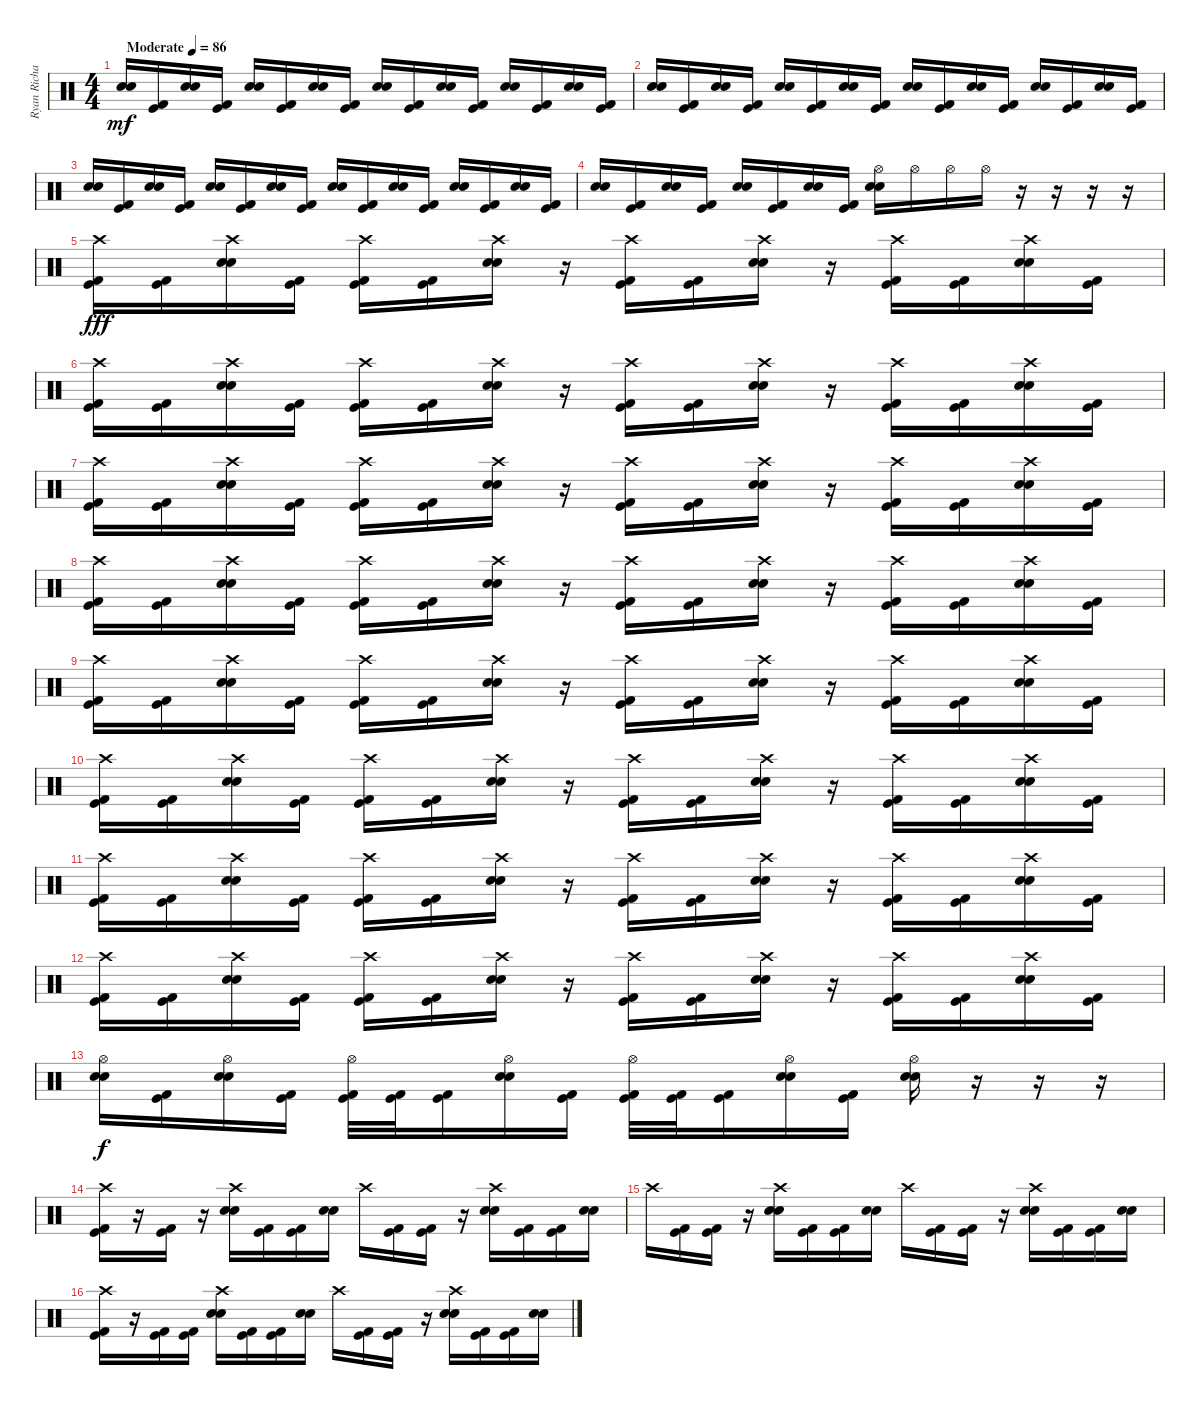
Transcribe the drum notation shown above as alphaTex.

\track ("Ryan Richards" "Ryan Richa") {instrument percussion}
\staff {score}
\articulation defaults
\ts (4 4)
\tempo (86 "Moderate")
\clef neutral
\ks c
("Snare (hit) 2" "Electric Snare (hit)").16{dy mf} ("Kick (hit)" "Kick (hit) 2").16 ("Snare (hit) 2" "Electric Snare (hit)").16 ("Kick (hit)" "Kick (hit) 2").16 ("Snare (hit) 2" "Electric Snare (hit)").16 ("Kick (hit)" "Kick (hit) 2").16 ("Snare (hit) 2" "Electric Snare (hit)").16 ("Kick (hit)" "Kick (hit) 2").16 ("Snare (hit) 2" "Electric Snare (hit)").16 ("Kick (hit)" "Kick (hit) 2").16 ("Snare (hit) 2" "Electric Snare (hit)").16 ("Kick (hit)" "Kick (hit) 2").16 ("Snare (hit) 2" "Electric Snare (hit)").16 ("Kick (hit)" "Kick (hit) 2").16 ("Snare (hit) 2" "Electric Snare (hit)").16 ("Kick (hit)" "Kick (hit) 2").16 |
("Snare (hit) 2" "Electric Snare (hit)").16 ("Kick (hit)" "Kick (hit) 2").16 ("Snare (hit) 2" "Electric Snare (hit)").16 ("Kick (hit)" "Kick (hit) 2").16 ("Snare (hit) 2" "Electric Snare (hit)").16 ("Kick (hit)" "Kick (hit) 2").16 ("Snare (hit) 2" "Electric Snare (hit)").16 ("Kick (hit)" "Kick (hit) 2").16 ("Snare (hit) 2" "Electric Snare (hit)").16 ("Kick (hit)" "Kick (hit) 2").16 ("Snare (hit) 2" "Electric Snare (hit)").16 ("Kick (hit)" "Kick (hit) 2").16 ("Snare (hit) 2" "Electric Snare (hit)").16 ("Kick (hit)" "Kick (hit) 2").16 ("Snare (hit) 2" "Electric Snare (hit)").16 ("Kick (hit)" "Kick (hit) 2").16 |
("Snare (hit) 2" "Electric Snare (hit)").16 ("Kick (hit)" "Kick (hit) 2").16 ("Snare (hit) 2" "Electric Snare (hit)").16 ("Kick (hit)" "Kick (hit) 2").16 ("Snare (hit) 2" "Electric Snare (hit)").16 ("Kick (hit)" "Kick (hit) 2").16 ("Snare (hit) 2" "Electric Snare (hit)").16 ("Kick (hit)" "Kick (hit) 2").16 ("Snare (hit) 2" "Electric Snare (hit)").16 ("Kick (hit)" "Kick (hit) 2").16 ("Snare (hit) 2" "Electric Snare (hit)").16 ("Kick (hit)" "Kick (hit) 2").16 ("Snare (hit) 2" "Electric Snare (hit)").16 ("Kick (hit)" "Kick (hit) 2").16 ("Snare (hit) 2" "Electric Snare (hit)").16 ("Kick (hit)" "Kick (hit) 2").16 |
("Snare (hit) 2" "Electric Snare (hit)").16 ("Kick (hit)" "Kick (hit) 2").16 ("Snare (hit) 2" "Electric Snare (hit)").16 ("Kick (hit)" "Kick (hit) 2").16 ("Snare (hit) 2" "Electric Snare (hit)").16 ("Kick (hit)" "Kick (hit) 2").16 ("Snare (hit) 2" "Electric Snare (hit)").16 ("Kick (hit)" "Kick (hit) 2").16 ("Snare (hit) 2" "Hi-Hat (open)" "Electric Snare (hit)").16 "Hi-Hat (open)".16 "Hi-Hat (open)".16 "Hi-Hat (open)".16 r.16 r.16 r.16 r.16 |
("Kick (hit)" "Crash high (hit)" "Kick (hit) 2").16{dy fff} ("Kick (hit)" "Kick (hit) 2").16 ("Snare (hit) 2" "Crash high (hit)" "Electric Snare (hit)").16 ("Kick (hit)" "Kick (hit) 2").16 ("Kick (hit)" "Crash high (hit)" "Kick (hit) 2").16 ("Kick (hit)" "Kick (hit) 2").16 ("Snare (hit) 2" "Crash high (hit)" "Electric Snare (hit)").16 r.16 ("Kick (hit)" "Crash high (hit)" "Kick (hit) 2").16 ("Kick (hit)" "Kick (hit) 2").16 ("Snare (hit) 2" "Crash high (hit)" "Electric Snare (hit)").16 r.16 ("Kick (hit)" "Crash high (hit)" "Kick (hit) 2").16 ("Kick (hit)" "Kick (hit) 2").16 ("Snare (hit) 2" "Crash high (hit)" "Electric Snare (hit)").16 ("Kick (hit)" "Kick (hit) 2").16 |
("Kick (hit)" "Crash high (hit)" "Kick (hit) 2").16 ("Kick (hit)" "Kick (hit) 2").16 ("Snare (hit) 2" "Crash high (hit)" "Electric Snare (hit)").16 ("Kick (hit)" "Kick (hit) 2").16 ("Kick (hit)" "Crash high (hit)" "Kick (hit) 2").16 ("Kick (hit)" "Kick (hit) 2").16 ("Snare (hit) 2" "Crash high (hit)" "Electric Snare (hit)").16 r.16 ("Kick (hit)" "Crash high (hit)" "Kick (hit) 2").16 ("Kick (hit)" "Kick (hit) 2").16 ("Snare (hit) 2" "Crash high (hit)" "Electric Snare (hit)").16 r.16 ("Kick (hit)" "Crash high (hit)" "Kick (hit) 2").16 ("Kick (hit)" "Kick (hit) 2").16 ("Snare (hit) 2" "Crash high (hit)" "Electric Snare (hit)").16 ("Kick (hit)" "Kick (hit) 2").16 |
("Kick (hit)" "Crash high (hit)" "Kick (hit) 2").16 ("Kick (hit)" "Kick (hit) 2").16 ("Snare (hit) 2" "Crash high (hit)" "Electric Snare (hit)").16 ("Kick (hit)" "Kick (hit) 2").16 ("Kick (hit)" "Crash high (hit)" "Kick (hit) 2").16 ("Kick (hit)" "Kick (hit) 2").16 ("Snare (hit) 2" "Crash high (hit)" "Electric Snare (hit)").16 r.16 ("Kick (hit)" "Crash high (hit)" "Kick (hit) 2").16 ("Kick (hit)" "Kick (hit) 2").16 ("Snare (hit) 2" "Crash high (hit)" "Electric Snare (hit)").16 r.16 ("Kick (hit)" "Crash high (hit)" "Kick (hit) 2").16 ("Kick (hit)" "Kick (hit) 2").16 ("Snare (hit) 2" "Crash high (hit)" "Electric Snare (hit)").16 ("Kick (hit)" "Kick (hit) 2").16 |
("Kick (hit)" "Crash high (hit)" "Kick (hit) 2").16 ("Kick (hit)" "Kick (hit) 2").16 ("Snare (hit) 2" "Crash high (hit)" "Electric Snare (hit)").16 ("Kick (hit)" "Kick (hit) 2").16 ("Kick (hit)" "Crash high (hit)" "Kick (hit) 2").16 ("Kick (hit)" "Kick (hit) 2").16 ("Snare (hit) 2" "Crash high (hit)" "Electric Snare (hit)").16 r.16 ("Kick (hit)" "Crash high (hit)" "Kick (hit) 2").16 ("Kick (hit)" "Kick (hit) 2").16 ("Snare (hit) 2" "Crash high (hit)" "Electric Snare (hit)").16 r.16 ("Kick (hit)" "Crash high (hit)" "Kick (hit) 2").16 ("Kick (hit)" "Kick (hit) 2").16 ("Snare (hit) 2" "Crash high (hit)" "Electric Snare (hit)").16 ("Kick (hit)" "Kick (hit) 2").16 |
("Kick (hit)" "Crash high (hit)" "Kick (hit) 2").16 ("Kick (hit)" "Kick (hit) 2").16 ("Snare (hit) 2" "Crash high (hit)" "Electric Snare (hit)").16 ("Kick (hit)" "Kick (hit) 2").16 ("Kick (hit)" "Crash high (hit)" "Kick (hit) 2").16 ("Kick (hit)" "Kick (hit) 2").16 ("Snare (hit) 2" "Crash high (hit)" "Electric Snare (hit)").16 r.16 ("Kick (hit)" "Crash high (hit)" "Kick (hit) 2").16 ("Kick (hit)" "Kick (hit) 2").16 ("Snare (hit) 2" "Crash high (hit)" "Electric Snare (hit)").16 r.16 ("Kick (hit)" "Crash high (hit)" "Kick (hit) 2").16 ("Kick (hit)" "Kick (hit) 2").16 ("Snare (hit) 2" "Crash high (hit)" "Electric Snare (hit)").16 ("Kick (hit)" "Kick (hit) 2").16 |
("Kick (hit)" "Crash high (hit)" "Kick (hit) 2").16 ("Kick (hit)" "Kick (hit) 2").16 ("Snare (hit) 2" "Crash high (hit)" "Electric Snare (hit)").16 ("Kick (hit)" "Kick (hit) 2").16 ("Kick (hit)" "Crash high (hit)" "Kick (hit) 2").16 ("Kick (hit)" "Kick (hit) 2").16 ("Snare (hit) 2" "Crash high (hit)" "Electric Snare (hit)").16 r.16 ("Kick (hit)" "Crash high (hit)" "Kick (hit) 2").16 ("Kick (hit)" "Kick (hit) 2").16 ("Snare (hit) 2" "Crash high (hit)" "Electric Snare (hit)").16 r.16 ("Kick (hit)" "Crash high (hit)" "Kick (hit) 2").16 ("Kick (hit)" "Kick (hit) 2").16 ("Snare (hit) 2" "Crash high (hit)" "Electric Snare (hit)").16 ("Kick (hit)" "Kick (hit) 2").16 |
("Kick (hit)" "Crash high (hit)" "Kick (hit) 2").16 ("Kick (hit)" "Kick (hit) 2").16 ("Snare (hit) 2" "Crash high (hit)" "Electric Snare (hit)").16 ("Kick (hit)" "Kick (hit) 2").16 ("Kick (hit)" "Crash high (hit)" "Kick (hit) 2").16 ("Kick (hit)" "Kick (hit) 2").16 ("Snare (hit) 2" "Crash high (hit)" "Electric Snare (hit)").16 r.16 ("Kick (hit)" "Crash high (hit)" "Kick (hit) 2").16 ("Kick (hit)" "Kick (hit) 2").16 ("Snare (hit) 2" "Crash high (hit)" "Electric Snare (hit)").16 r.16 ("Kick (hit)" "Crash high (hit)" "Kick (hit) 2").16 ("Kick (hit)" "Kick (hit) 2").16 ("Snare (hit) 2" "Crash high (hit)" "Electric Snare (hit)").16 ("Kick (hit)" "Kick (hit) 2").16 |
("Kick (hit)" "Crash high (hit)" "Kick (hit) 2").16 ("Kick (hit)" "Kick (hit) 2").16 ("Snare (hit) 2" "Crash high (hit)" "Electric Snare (hit)").16 ("Kick (hit)" "Kick (hit) 2").16 ("Kick (hit)" "Crash high (hit)" "Kick (hit) 2").16 ("Kick (hit)" "Kick (hit) 2").16 ("Snare (hit) 2" "Crash high (hit)" "Electric Snare (hit)").16 r.16 ("Kick (hit)" "Crash high (hit)" "Kick (hit) 2").16 ("Kick (hit)" "Kick (hit) 2").16 ("Snare (hit) 2" "Crash high (hit)" "Electric Snare (hit)").16 r.16 ("Kick (hit)" "Crash high (hit)" "Kick (hit) 2").16 ("Kick (hit)" "Kick (hit) 2").16 ("Snare (hit) 2" "Crash high (hit)" "Electric Snare (hit)").16 ("Kick (hit)" "Kick (hit) 2").16 |
("Snare (hit) 2" "Hi-Hat (open)" "Electric Snare (hit)").16{dy f} ("Kick (hit)" "Kick (hit) 2").16 ("Snare (hit) 2" "Hi-Hat (open)" "Electric Snare (hit)").16 ("Kick (hit)" "Kick (hit) 2").16 ("Kick (hit)" "Hi-Hat (open)" "Kick (hit) 2").32 ("Kick (hit)" "Kick (hit) 2").32 ("Kick (hit)" "Kick (hit) 2").16 ("Snare (hit) 2" "Hi-Hat (open)" "Electric Snare (hit)").16 ("Kick (hit)" "Kick (hit) 2").16 ("Kick (hit)" "Hi-Hat (open)" "Kick (hit) 2").32 ("Kick (hit)" "Kick (hit) 2").32 ("Kick (hit)" "Kick (hit) 2").16 ("Snare (hit) 2" "Hi-Hat (open)" "Electric Snare (hit)").16 ("Kick (hit)" "Kick (hit) 2").16 ("Snare (hit) 2" "Hi-Hat (open)" "Electric Snare (hit)").16 r.16 r.16 r.16 |
("Kick (hit)" "Crash high (hit)" "Kick (hit) 2").16 r.16 ("Kick (hit)" "Kick (hit) 2").16 r.16 ("Snare (hit) 2" "Crash high (hit)" "Electric Snare (hit)").16 ("Kick (hit)" "Kick (hit) 2").16 ("Kick (hit)" "Kick (hit) 2").16 ("Snare (hit) 2" "Electric Snare (hit)").16 "Crash high (hit)".16 ("Kick (hit)" "Kick (hit) 2").16 ("Kick (hit)" "Kick (hit) 2").16 r.16 ("Snare (hit) 2" "Crash high (hit)" "Electric Snare (hit)").16 ("Kick (hit)" "Kick (hit) 2").16 ("Kick (hit)" "Kick (hit) 2").16 ("Snare (hit) 2" "Electric Snare (hit)").16 |
"Crash high (hit)".16 ("Kick (hit)" "Kick (hit) 2").16 ("Kick (hit)" "Kick (hit) 2").16 r.16 ("Snare (hit) 2" "Crash high (hit)" "Electric Snare (hit)").16 ("Kick (hit)" "Kick (hit) 2").16 ("Kick (hit)" "Kick (hit) 2").16 ("Snare (hit) 2" "Electric Snare (hit)").16 "Crash high (hit)".16 ("Kick (hit)" "Kick (hit) 2").16 ("Kick (hit)" "Kick (hit) 2").16 r.16 ("Snare (hit) 2" "Crash high (hit)" "Electric Snare (hit)").16 ("Kick (hit)" "Kick (hit) 2").16 ("Kick (hit)" "Kick (hit) 2").16 ("Snare (hit) 2" "Electric Snare (hit)").16 |
("Kick (hit)" "Crash high (hit)" "Kick (hit) 2").16 r.16 ("Kick (hit)" "Kick (hit) 2").16 ("Kick (hit)" "Kick (hit) 2").16 ("Snare (hit) 2" "Crash high (hit)" "Electric Snare (hit)").16 ("Kick (hit)" "Kick (hit) 2").16 ("Kick (hit)" "Kick (hit) 2").16 ("Snare (hit) 2" "Electric Snare (hit)").16 "Crash high (hit)".16 ("Kick (hit)" "Kick (hit) 2").16 ("Kick (hit)" "Kick (hit) 2").16 r.16 ("Snare (hit) 2" "Crash high (hit)" "Electric Snare (hit)").16 ("Kick (hit)" "Kick (hit) 2").16 ("Kick (hit)" "Kick (hit) 2").16 ("Snare (hit) 2" "Electric Snare (hit)").16
